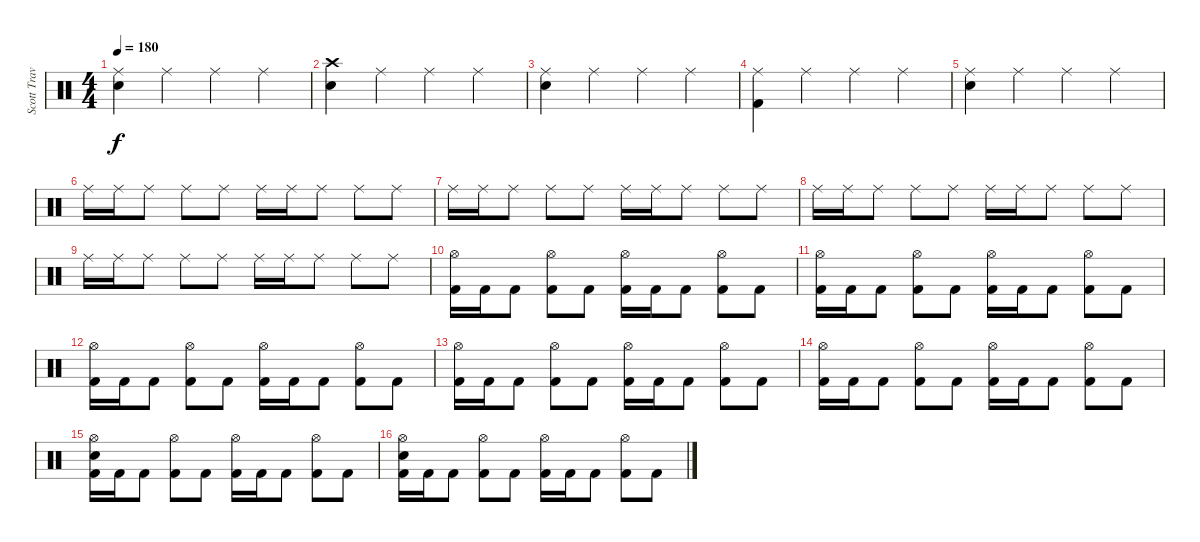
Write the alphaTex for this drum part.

\track ("Scott Travis" "Scott Trav") {instrument percussion}
\staff {score}
\articulation defaults
\ts (4 4)
\tempo 180
\clef neutral
\ks c
("Ride (middle)" "Snare (hit) 2").4{dy f} "Ride (middle)".4 "Ride (middle)".4 "Ride (middle)".4 |
("Crash high (hit)" "Snare (hit) 2").4 "Ride (middle)".4 "Ride (middle)".4 "Ride (middle)".4 |
("Ride (middle)" "Snare (hit) 2").4 "Ride (middle)".4 "Ride (middle)".4 "Ride (middle)".4 |
("Ride (middle)" "Kick (hit) 2").4 "Ride (middle)".4 "Ride (middle)".4 "Ride (middle)".4 |
("Ride (middle)" "Snare (hit) 2").4 "Ride (middle)".4 "Ride (middle)".4 "Ride (middle)".4 |
"Ride (middle)".16 "Ride (middle)".16 "Ride (middle)".8 "Ride (middle)".8 "Ride (middle)".8 "Ride (middle)".16 "Ride (middle)".16 "Ride (middle)".8 "Ride (middle)".8 "Ride (middle)".8 |
"Ride (middle)".16 "Ride (middle)".16 "Ride (middle)".8 "Ride (middle)".8 "Ride (middle)".8 "Ride (middle)".16 "Ride (middle)".16 "Ride (middle)".8 "Ride (middle)".8 "Ride (middle)".8 |
"Ride (middle)".16 "Ride (middle)".16 "Ride (middle)".8 "Ride (middle)".8 "Ride (middle)".8 "Ride (middle)".16 "Ride (middle)".16 "Ride (middle)".8 "Ride (middle)".8 "Ride (middle)".8 |
"Ride (middle)".16 "Ride (middle)".16 "Ride (middle)".8 "Ride (middle)".8 "Ride (middle)".8 "Ride (middle)".16 "Ride (middle)".16 "Ride (middle)".8 "Ride (middle)".8 "Ride (middle)".8 |
("Hi-Hat (open)" "Kick (hit) 2").16 "Kick (hit) 2".16 "Kick (hit) 2".8 ("Hi-Hat (open)" "Kick (hit) 2").8 "Kick (hit) 2".8 ("Hi-Hat (open)" "Kick (hit) 2").16 "Kick (hit) 2".16 "Kick (hit) 2".8 ("Hi-Hat (open)" "Kick (hit) 2").8 "Kick (hit) 2".8 |
("Hi-Hat (open)" "Kick (hit) 2").16 "Kick (hit) 2".16 "Kick (hit) 2".8 ("Hi-Hat (open)" "Kick (hit) 2").8 "Kick (hit) 2".8 ("Hi-Hat (open)" "Kick (hit) 2").16 "Kick (hit) 2".16 "Kick (hit) 2".8 ("Hi-Hat (open)" "Kick (hit) 2").8 "Kick (hit) 2".8 |
("Hi-Hat (open)" "Kick (hit) 2").16 "Kick (hit) 2".16 "Kick (hit) 2".8 ("Hi-Hat (open)" "Kick (hit) 2").8 "Kick (hit) 2".8 ("Hi-Hat (open)" "Kick (hit) 2").16 "Kick (hit) 2".16 "Kick (hit) 2".8 ("Hi-Hat (open)" "Kick (hit) 2").8 "Kick (hit) 2".8 |
("Hi-Hat (open)" "Kick (hit) 2").16 "Kick (hit) 2".16 "Kick (hit) 2".8 ("Hi-Hat (open)" "Kick (hit) 2").8 "Kick (hit) 2".8 ("Hi-Hat (open)" "Kick (hit) 2").16 "Kick (hit) 2".16 "Kick (hit) 2".8 ("Hi-Hat (open)" "Kick (hit) 2").8 "Kick (hit) 2".8 |
("Hi-Hat (open)" "Kick (hit) 2").16 "Kick (hit) 2".16 "Kick (hit) 2".8 ("Hi-Hat (open)" "Kick (hit) 2").8 "Kick (hit) 2".8 ("Hi-Hat (open)" "Kick (hit) 2").16 "Kick (hit) 2".16 "Kick (hit) 2".8 ("Hi-Hat (open)" "Kick (hit) 2").8 "Kick (hit) 2".8 |
("Hi-Hat (open)" "Snare (hit) 2" "Kick (hit) 2").16 "Kick (hit) 2".16 "Kick (hit) 2".8 ("Hi-Hat (open)" "Kick (hit) 2").8 "Kick (hit) 2".8 ("Hi-Hat (open)" "Kick (hit) 2").16 "Kick (hit) 2".16 "Kick (hit) 2".8 ("Hi-Hat (open)" "Kick (hit) 2").8 "Kick (hit) 2".8 |
("Hi-Hat (open)" "Snare (hit) 2" "Kick (hit) 2").16 "Kick (hit) 2".16 "Kick (hit) 2".8 ("Hi-Hat (open)" "Kick (hit) 2").8 "Kick (hit) 2".8 ("Hi-Hat (open)" "Kick (hit) 2").16 "Kick (hit) 2".16 "Kick (hit) 2".8 ("Hi-Hat (open)" "Kick (hit) 2").8 "Kick (hit) 2".8
